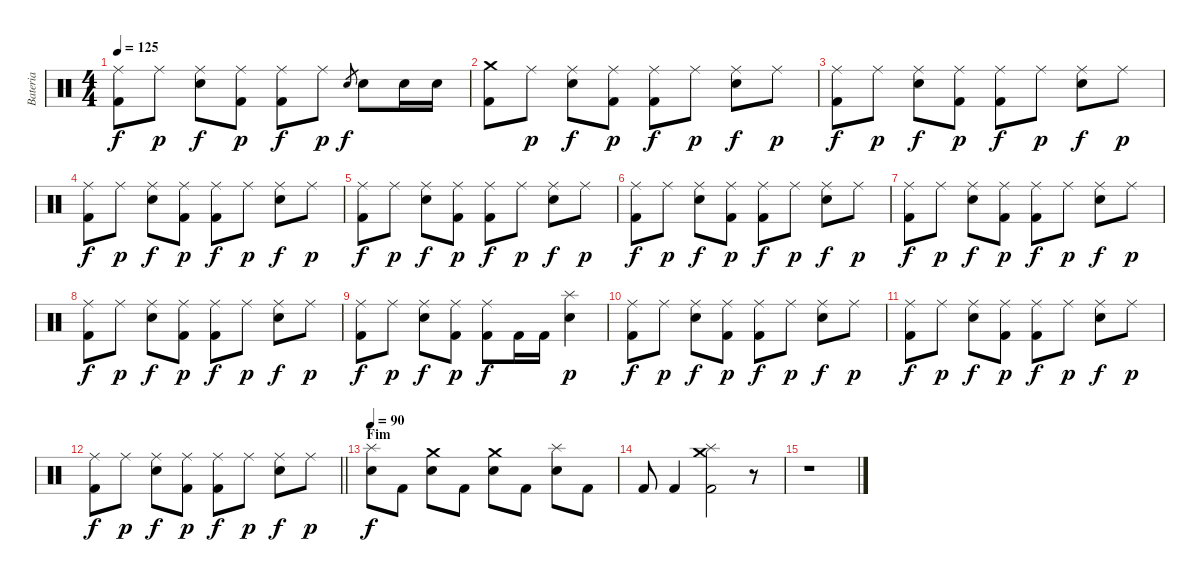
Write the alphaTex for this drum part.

\track ("Bateria" "Bateria") {instrument percussion}
\staff {score}
\articulation defaults
\ts (4 4)
\tempo 125
\clef neutral
\ks c
("Ride (middle)" "Kick (hit) 2").8{dy f} "Ride (middle)".8{dy p} ("Ride (middle)" "Electric Snare (hit)").8{dy f} ("Ride (middle)" "Kick (hit) 2").8{dy p} ("Ride (middle)" "Kick (hit) 2").8{dy f} "Ride (middle)".8{dy p} "Electric Snare (hit)".8{gr dy f} "Electric Snare (hit)".8 "Electric Snare (hit)".16 "Electric Snare (hit)".16 |
("Crash medium (hit)" "Kick (hit) 2").8 "Ride (middle)".8{dy p} ("Ride (middle)" "Electric Snare (hit)").8{dy f} ("Ride (middle)" "Kick (hit) 2").8{dy p} ("Ride (middle)" "Kick (hit) 2").8{dy f} "Ride (middle)".8{dy p} ("Ride (middle)" "Electric Snare (hit)").8{dy f} "Ride (middle)".8{dy p} |
("Ride (middle)" "Kick (hit) 2").8{dy f} "Ride (middle)".8{dy p} ("Ride (middle)" "Electric Snare (hit)").8{dy f} ("Ride (middle)" "Kick (hit) 2").8{dy p} ("Ride (middle)" "Kick (hit) 2").8{dy f} "Ride (middle)".8{dy p} ("Ride (middle)" "Electric Snare (hit)").8{dy f} "Ride (middle)".8{dy p} |
("Ride (middle)" "Kick (hit) 2").8{dy f} "Ride (middle)".8{dy p} ("Ride (middle)" "Electric Snare (hit)").8{dy f} ("Ride (middle)" "Kick (hit) 2").8{dy p} ("Ride (middle)" "Kick (hit) 2").8{dy f} "Ride (middle)".8{dy p} ("Ride (middle)" "Electric Snare (hit)").8{dy f} "Ride (middle)".8{dy p} |
("Ride (middle)" "Kick (hit) 2").8{dy f} "Ride (middle)".8{dy p} ("Ride (middle)" "Electric Snare (hit)").8{dy f} ("Ride (middle)" "Kick (hit) 2").8{dy p} ("Ride (middle)" "Kick (hit) 2").8{dy f} "Ride (middle)".8{dy p} ("Ride (middle)" "Electric Snare (hit)").8{dy f} "Ride (middle)".8{dy p} |
("Ride (middle)" "Kick (hit) 2").8{dy f} "Ride (middle)".8{dy p} ("Ride (middle)" "Electric Snare (hit)").8{dy f} ("Ride (middle)" "Kick (hit) 2").8{dy p} ("Ride (middle)" "Kick (hit) 2").8{dy f} "Ride (middle)".8{dy p} ("Ride (middle)" "Electric Snare (hit)").8{dy f} "Ride (middle)".8{dy p} |
("Ride (middle)" "Kick (hit) 2").8{dy f} "Ride (middle)".8{dy p} ("Ride (middle)" "Electric Snare (hit)").8{dy f} ("Ride (middle)" "Kick (hit) 2").8{dy p} ("Ride (middle)" "Kick (hit) 2").8{dy f} "Ride (middle)".8{dy p} ("Ride (middle)" "Electric Snare (hit)").8{dy f} "Ride (middle)".8{dy p} |
("Ride (middle)" "Kick (hit) 2").8{dy f} "Ride (middle)".8{dy p} ("Ride (middle)" "Electric Snare (hit)").8{dy f} ("Ride (middle)" "Kick (hit) 2").8{dy p} ("Ride (middle)" "Kick (hit) 2").8{dy f} "Ride (middle)".8{dy p} ("Ride (middle)" "Electric Snare (hit)").8{dy f} "Ride (middle)".8{dy p} |
("Ride (middle)" "Kick (hit) 2").8{dy f} "Ride (middle)".8{dy p} ("Ride (middle)" "Electric Snare (hit)").8{dy f} ("Ride (middle)" "Kick (hit) 2").8{dy p} ("Ride (middle)" "Kick (hit) 2").8{dy f} "Kick (hit) 2".16 "Kick (hit) 2".16 ("Splash (hit)" "Electric Snare (hit)").4{dy p} |
("Ride (middle)" "Kick (hit) 2").8{dy f} "Ride (middle)".8{dy p} ("Ride (middle)" "Electric Snare (hit)").8{dy f} ("Ride (middle)" "Kick (hit) 2").8{dy p} ("Ride (middle)" "Kick (hit) 2").8{dy f} "Ride (middle)".8{dy p} ("Ride (middle)" "Electric Snare (hit)").8{dy f} "Ride (middle)".8{dy p} |
("Ride (middle)" "Kick (hit) 2").8{dy f} "Ride (middle)".8{dy p} ("Ride (middle)" "Electric Snare (hit)").8{dy f} ("Ride (middle)" "Kick (hit) 2").8{dy p} ("Ride (middle)" "Kick (hit) 2").8{dy f} "Ride (middle)".8{dy p} ("Ride (middle)" "Electric Snare (hit)").8{dy f} "Ride (middle)".8{dy p} |
\barLineRight lightlight
("Ride (middle)" "Kick (hit) 2").8{dy f} "Ride (middle)".8{dy p} ("Ride (middle)" "Electric Snare (hit)").8{dy f} ("Ride (middle)" "Kick (hit) 2").8{dy p} ("Ride (middle)" "Kick (hit) 2").8{dy f} "Ride (middle)".8{dy p} ("Ride (middle)" "Electric Snare (hit)").8{dy f} "Ride (middle)".8{dy p} |
\section ("" "Fim")
\tempo 90
("Electric Snare (hit)" "Splash (hit)").8{dy f} "Kick (hit) 2".8 ("Electric Snare (hit)" "Crash medium (hit)").8 "Kick (hit) 2".8 ("Electric Snare (hit)" "Crash medium (hit)").8 "Kick (hit) 2".8 ("Electric Snare (hit)" "Splash (hit)").8 "Kick (hit) 2".8 |
"Kick (hit) 2".8 "Kick (hit) 2".4 ("Crash medium (hit)" "Splash (hit)" "Kick (hit) 2").2 r.8 |
r.1
